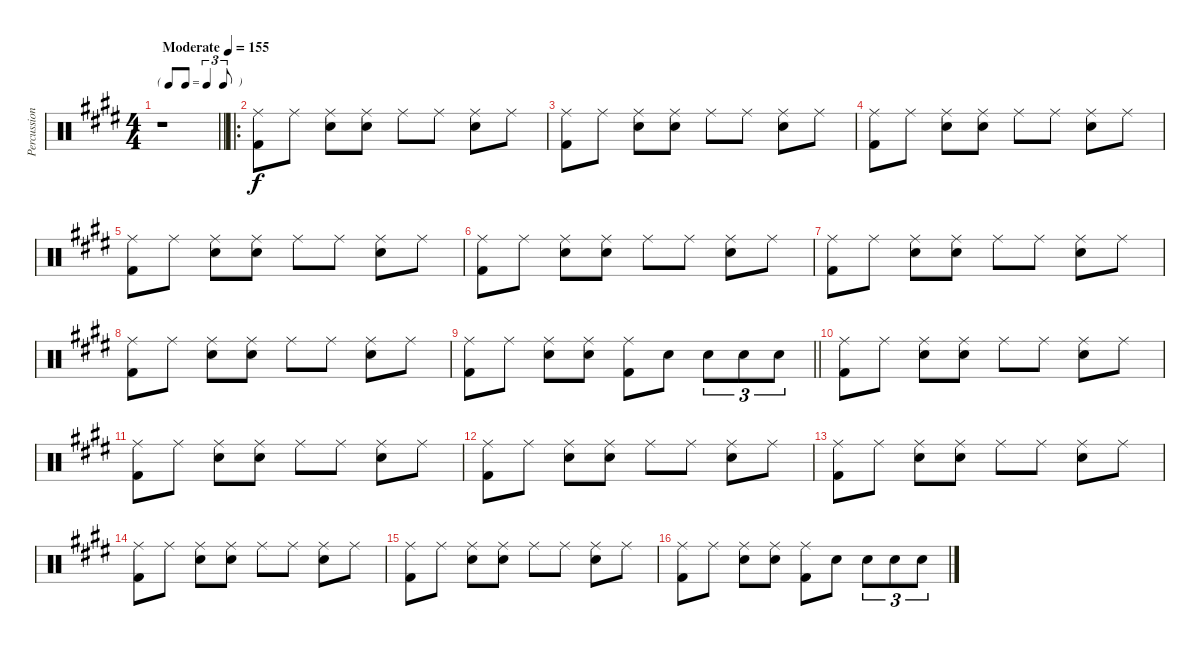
\track ("Percussion" "Percussion") {instrument percussion}
\staff {score}
\articulation defaults
\ts (4 4)
\tf triplet8th
\tempo (155 "Moderate")
\clef neutral
\barLineRight lightlight
\ks e
r.1{dy f} |
\ro
("Ride (middle)" "Kick (hit) 2").8 "Ride (middle)".8 ("Ride (middle)" "Snare (hit) 2").8 ("Ride (middle)" "Snare (hit) 2").8 "Ride (middle)".8 "Ride (middle)".8 ("Ride (middle)" "Snare (hit) 2").8 "Ride (middle)".8 |
("Ride (middle)" "Kick (hit) 2").8 "Ride (middle)".8 ("Ride (middle)" "Snare (hit) 2").8 ("Ride (middle)" "Snare (hit) 2").8 "Ride (middle)".8 "Ride (middle)".8 ("Ride (middle)" "Snare (hit) 2").8 "Ride (middle)".8 |
("Ride (middle)" "Kick (hit) 2").8 "Ride (middle)".8 ("Ride (middle)" "Snare (hit) 2").8 ("Ride (middle)" "Snare (hit) 2").8 "Ride (middle)".8 "Ride (middle)".8 ("Ride (middle)" "Snare (hit) 2").8 "Ride (middle)".8 |
("Ride (middle)" "Kick (hit) 2").8 "Ride (middle)".8 ("Ride (middle)" "Snare (hit) 2").8 ("Ride (middle)" "Snare (hit) 2").8 "Ride (middle)".8 "Ride (middle)".8 ("Ride (middle)" "Snare (hit) 2").8 "Ride (middle)".8 |
("Ride (middle)" "Kick (hit) 2").8 "Ride (middle)".8 ("Ride (middle)" "Snare (hit) 2").8 ("Ride (middle)" "Snare (hit) 2").8 "Ride (middle)".8 "Ride (middle)".8 ("Ride (middle)" "Snare (hit) 2").8 "Ride (middle)".8 |
("Ride (middle)" "Kick (hit) 2").8 "Ride (middle)".8 ("Ride (middle)" "Snare (hit) 2").8 ("Ride (middle)" "Snare (hit) 2").8 "Ride (middle)".8 "Ride (middle)".8 ("Ride (middle)" "Snare (hit) 2").8 "Ride (middle)".8 |
("Ride (middle)" "Kick (hit) 2").8 "Ride (middle)".8 ("Ride (middle)" "Snare (hit) 2").8 ("Ride (middle)" "Snare (hit) 2").8 "Ride (middle)".8 "Ride (middle)".8 ("Ride (middle)" "Snare (hit) 2").8 "Ride (middle)".8 |
\barLineRight lightlight
("Ride (middle)" "Kick (hit) 2").8 "Ride (middle)".8 ("Ride (middle)" "Snare (hit) 2").8 ("Ride (middle)" "Snare (hit) 2").8 ("Ride (middle)" "Kick (hit) 2").8 "Snare (hit) 2".8 "Snare (hit) 2".8{tu (3 2)} "Snare (hit) 2".8{tu (3 2)} "Snare (hit) 2".8{tu (3 2)} |
("Ride (middle)" "Kick (hit) 2").8 "Ride (middle)".8 ("Ride (middle)" "Snare (hit) 2").8 ("Ride (middle)" "Snare (hit) 2").8 "Ride (middle)".8 "Ride (middle)".8 ("Ride (middle)" "Snare (hit) 2").8 "Ride (middle)".8 |
("Ride (middle)" "Kick (hit) 2").8 "Ride (middle)".8 ("Ride (middle)" "Snare (hit) 2").8 ("Ride (middle)" "Snare (hit) 2").8 "Ride (middle)".8 "Ride (middle)".8 ("Ride (middle)" "Snare (hit) 2").8 "Ride (middle)".8 |
("Ride (middle)" "Kick (hit) 2").8 "Ride (middle)".8 ("Ride (middle)" "Snare (hit) 2").8 ("Ride (middle)" "Snare (hit) 2").8 "Ride (middle)".8 "Ride (middle)".8 ("Ride (middle)" "Snare (hit) 2").8 "Ride (middle)".8 |
("Ride (middle)" "Kick (hit) 2").8 "Ride (middle)".8 ("Ride (middle)" "Snare (hit) 2").8 ("Ride (middle)" "Snare (hit) 2").8 "Ride (middle)".8 "Ride (middle)".8 ("Ride (middle)" "Snare (hit) 2").8 "Ride (middle)".8 |
("Ride (middle)" "Kick (hit) 2").8 "Ride (middle)".8 ("Ride (middle)" "Snare (hit) 2").8 ("Ride (middle)" "Snare (hit) 2").8 "Ride (middle)".8 "Ride (middle)".8 ("Ride (middle)" "Snare (hit) 2").8 "Ride (middle)".8 |
("Ride (middle)" "Kick (hit) 2").8 "Ride (middle)".8 ("Ride (middle)" "Snare (hit) 2").8 ("Ride (middle)" "Snare (hit) 2").8 "Ride (middle)".8 "Ride (middle)".8 ("Ride (middle)" "Snare (hit) 2").8 "Ride (middle)".8 |
("Ride (middle)" "Kick (hit) 2").8 "Ride (middle)".8 ("Ride (middle)" "Snare (hit) 2").8 ("Ride (middle)" "Snare (hit) 2").8 ("Ride (middle)" "Kick (hit) 2").8 "Snare (hit) 2".8 "Snare (hit) 2".8{tu (3 2)} "Snare (hit) 2".8{tu (3 2)} "Snare (hit) 2".8{tu (3 2)}
